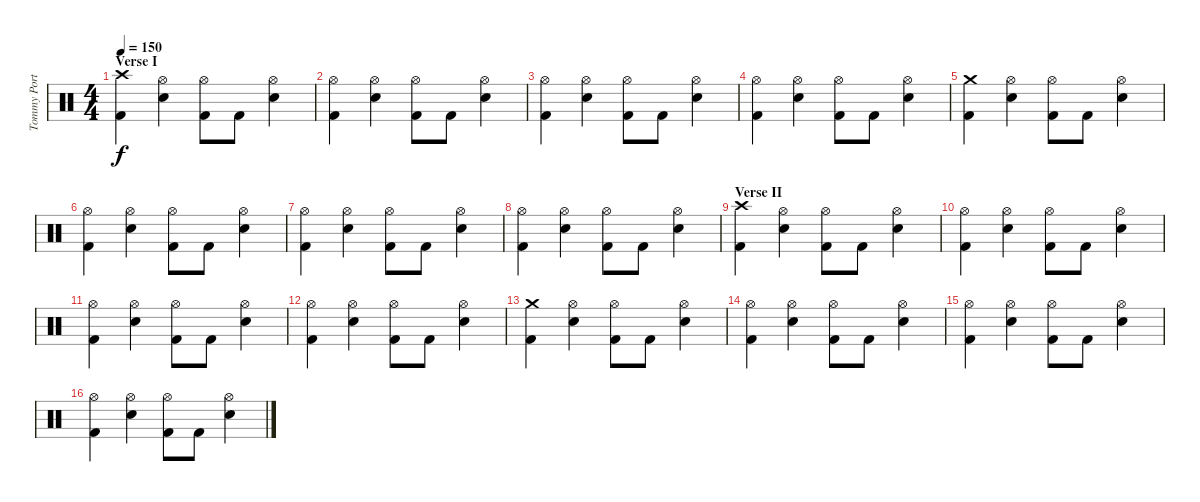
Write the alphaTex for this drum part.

\track ("Tommy Portino - Drums" "Tommy Port") {instrument percussion}
\staff {score}
\articulation defaults
\ts (4 4)
\section ("" "Verse I")
\tempo 150
\clef neutral
\ks c
("Crash high (hit)" "Kick (hit) 2").4{dy f} ("Hi-Hat (open)" "Electric Snare (hit)").4 ("Hi-Hat (open)" "Kick (hit) 2").8 "Kick (hit) 2".8 ("Hi-Hat (open)" "Electric Snare (hit)").4 |
("Hi-Hat (open)" "Kick (hit) 2").4 ("Hi-Hat (open)" "Electric Snare (hit)").4 ("Hi-Hat (open)" "Kick (hit) 2").8 "Kick (hit) 2".8 ("Hi-Hat (open)" "Electric Snare (hit)").4 |
("Hi-Hat (open)" "Kick (hit) 2").4 ("Hi-Hat (open)" "Electric Snare (hit)").4 ("Hi-Hat (open)" "Kick (hit) 2").8 "Kick (hit) 2".8 ("Hi-Hat (open)" "Electric Snare (hit)").4 |
("Hi-Hat (open)" "Kick (hit) 2").4 ("Hi-Hat (open)" "Electric Snare (hit)").4 ("Hi-Hat (open)" "Kick (hit) 2").8 "Kick (hit) 2".8 ("Hi-Hat (open)" "Electric Snare (hit)").4 |
("Crash medium (hit)" "Kick (hit) 2").4 ("Hi-Hat (open)" "Electric Snare (hit)").4 ("Hi-Hat (open)" "Kick (hit) 2").8 "Kick (hit) 2".8 ("Hi-Hat (open)" "Electric Snare (hit)").4 |
("Hi-Hat (open)" "Kick (hit) 2").4 ("Hi-Hat (open)" "Electric Snare (hit)").4 ("Hi-Hat (open)" "Kick (hit) 2").8 "Kick (hit) 2".8 ("Hi-Hat (open)" "Electric Snare (hit)").4 |
("Hi-Hat (open)" "Kick (hit) 2").4 ("Hi-Hat (open)" "Electric Snare (hit)").4 ("Hi-Hat (open)" "Kick (hit) 2").8 "Kick (hit) 2".8 ("Hi-Hat (open)" "Electric Snare (hit)").4 |
("Hi-Hat (open)" "Kick (hit) 2").4 ("Hi-Hat (open)" "Electric Snare (hit)").4 ("Hi-Hat (open)" "Kick (hit) 2").8 "Kick (hit) 2".8 ("Hi-Hat (open)" "Electric Snare (hit)").4 |
\section ("" "Verse II")
("Crash high (hit)" "Kick (hit) 2").4 ("Hi-Hat (open)" "Electric Snare (hit)").4 ("Hi-Hat (open)" "Kick (hit) 2").8 "Kick (hit) 2".8 ("Hi-Hat (open)" "Electric Snare (hit)").4 |
("Hi-Hat (open)" "Kick (hit) 2").4 ("Hi-Hat (open)" "Electric Snare (hit)").4 ("Hi-Hat (open)" "Kick (hit) 2").8 "Kick (hit) 2".8 ("Hi-Hat (open)" "Electric Snare (hit)").4 |
("Hi-Hat (open)" "Kick (hit) 2").4 ("Hi-Hat (open)" "Electric Snare (hit)").4 ("Hi-Hat (open)" "Kick (hit) 2").8 "Kick (hit) 2".8 ("Hi-Hat (open)" "Electric Snare (hit)").4 |
("Hi-Hat (open)" "Kick (hit) 2").4 ("Hi-Hat (open)" "Electric Snare (hit)").4 ("Hi-Hat (open)" "Kick (hit) 2").8 "Kick (hit) 2".8 ("Hi-Hat (open)" "Electric Snare (hit)").4 |
("Crash medium (hit)" "Kick (hit) 2").4 ("Hi-Hat (open)" "Electric Snare (hit)").4 ("Hi-Hat (open)" "Kick (hit) 2").8 "Kick (hit) 2".8 ("Hi-Hat (open)" "Electric Snare (hit)").4 |
("Hi-Hat (open)" "Kick (hit) 2").4 ("Hi-Hat (open)" "Electric Snare (hit)").4 ("Hi-Hat (open)" "Kick (hit) 2").8 "Kick (hit) 2".8 ("Hi-Hat (open)" "Electric Snare (hit)").4 |
("Hi-Hat (open)" "Kick (hit) 2").4 ("Hi-Hat (open)" "Electric Snare (hit)").4 ("Hi-Hat (open)" "Kick (hit) 2").8 "Kick (hit) 2".8 ("Hi-Hat (open)" "Electric Snare (hit)").4 |
("Hi-Hat (open)" "Kick (hit) 2").4 ("Hi-Hat (open)" "Electric Snare (hit)").4 ("Hi-Hat (open)" "Kick (hit) 2").8 "Kick (hit) 2".8 ("Hi-Hat (open)" "Electric Snare (hit)").4
